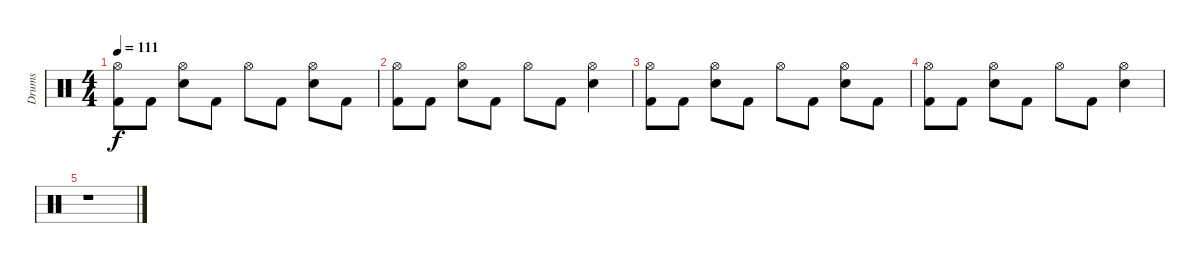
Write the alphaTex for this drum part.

\track ("Drums" "Drums") {instrument percussion}
\staff {score}
\articulation defaults
\ts (4 4)
\tempo 111
\clef neutral
\ks c
("Hi-Hat (open)" "Kick (hit) 2").8{dy f} "Kick (hit) 2".8 ("Hi-Hat (open)" "Snare (hit) 2").8 "Kick (hit) 2".8 "Hi-Hat (open)".8 "Kick (hit) 2".8 ("Hi-Hat (open)" "Snare (hit) 2").8 "Kick (hit) 2".8 |
("Hi-Hat (open)" "Kick (hit) 2").8 "Kick (hit) 2".8 ("Hi-Hat (open)" "Snare (hit) 2").8 "Kick (hit) 2".8 "Hi-Hat (open)".8 "Kick (hit) 2".8 ("Hi-Hat (open)" "Snare (hit) 2").4 |
("Hi-Hat (open)" "Kick (hit) 2").8 "Kick (hit) 2".8 ("Hi-Hat (open)" "Snare (hit) 2").8 "Kick (hit) 2".8 "Hi-Hat (open)".8 "Kick (hit) 2".8 ("Hi-Hat (open)" "Snare (hit) 2").8 "Kick (hit) 2".8 |
("Hi-Hat (open)" "Kick (hit) 2").8 "Kick (hit) 2".8 ("Hi-Hat (open)" "Snare (hit) 2").8 "Kick (hit) 2".8 "Hi-Hat (open)".8 "Kick (hit) 2".8 ("Hi-Hat (open)" "Snare (hit) 2").4 |
r.1
